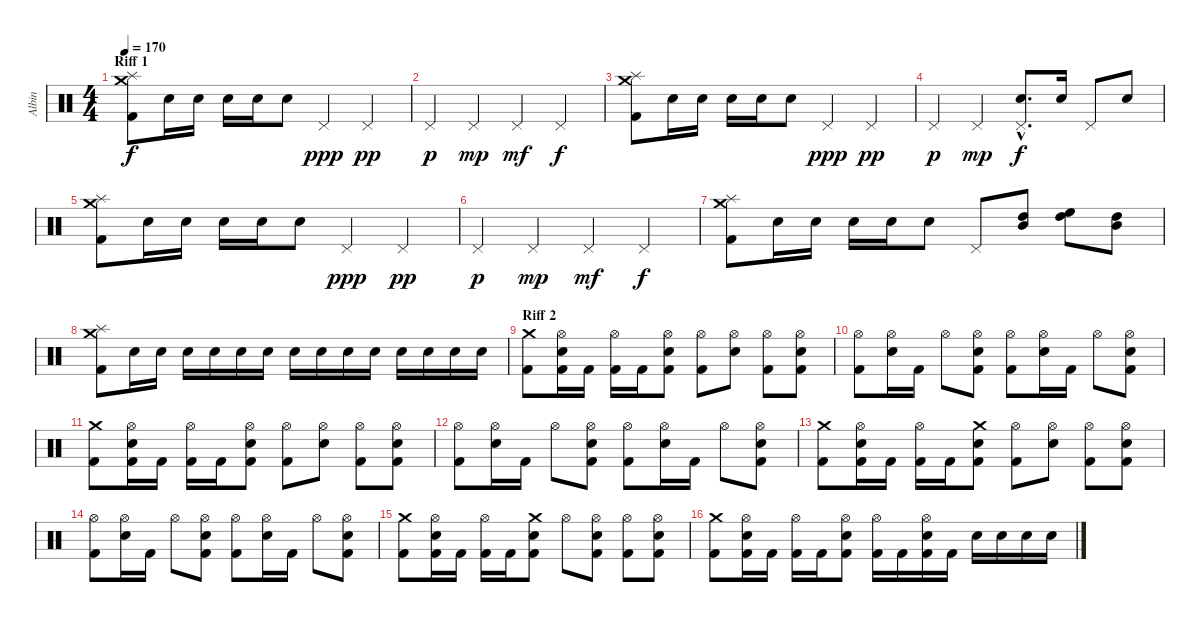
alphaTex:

\track ("Albin" "Albin") {instrument percussion}
\staff {score}
\articulation defaults
\ts (4 4)
\section ("" "Riff 1")
\tempo 170
\clef neutral
\ks c
("Crash medium (hit)" "Splash (hit)" "Kick (hit) 2").8{dy f} "Electric Snare (hit)".16 "Electric Snare (hit)".16 "Electric Snare (hit)".16 "Electric Snare (hit)".16 "Electric Snare (hit)".8 "Pedal Hi-Hat (hit)".4{dy ppp} "Pedal Hi-Hat (hit)".4{dy pp} |
"Pedal Hi-Hat (hit)".4{dy p} "Pedal Hi-Hat (hit)".4{dy mp} "Pedal Hi-Hat (hit)".4{dy mf} "Pedal Hi-Hat (hit)".4{dy f} |
("Crash medium (hit)" "Splash (hit)" "Kick (hit) 2").8 "Electric Snare (hit)".16 "Electric Snare (hit)".16 "Electric Snare (hit)".16 "Electric Snare (hit)".16 "Electric Snare (hit)".8 "Pedal Hi-Hat (hit)".4{dy ppp} "Pedal Hi-Hat (hit)".4{dy pp} |
"Pedal Hi-Hat (hit)".4{dy p} "Pedal Hi-Hat (hit)".4{dy mp} ("Pedal Hi-Hat (hit)"{hac} "Electric Snare (hit)"{hac}).8{d dy f} "Electric Snare (hit)".16 "Pedal Hi-Hat (hit)".8 "Electric Snare (hit)".8 |
("Crash medium (hit)" "Splash (hit)" "Kick (hit) 2").8 "Electric Snare (hit)".16 "Electric Snare (hit)".16 "Electric Snare (hit)".16 "Electric Snare (hit)".16 "Electric Snare (hit)".8 "Pedal Hi-Hat (hit)".4{dy ppp} "Pedal Hi-Hat (hit)".4{dy pp} |
"Pedal Hi-Hat (hit)".4{dy p} "Pedal Hi-Hat (hit)".4{dy mp} "Pedal Hi-Hat (hit)".4{dy mf} "Pedal Hi-Hat (hit)".4{dy f} |
("Crash medium (hit)" "Splash (hit)" "Kick (hit) 2").8 "Electric Snare (hit)".16 "Electric Snare (hit)".16 "Electric Snare (hit)".16 "Electric Snare (hit)".16 "Electric Snare (hit)".8 "Pedal Hi-Hat (hit)".8 ("Mid Tom (hit)" "High Tom (hit)").8 ("High Floor Tom (hit)" "High Tom (hit)").8 ("Mid Tom (hit)" "High Tom (hit)").8 |
("Crash medium (hit)" "Splash (hit)" "Kick (hit) 2").8 "Electric Snare (hit)".16 "Electric Snare (hit)".16 "Electric Snare (hit)".16 "Electric Snare (hit)".16 "Electric Snare (hit)".16 "Electric Snare (hit)".16 "Electric Snare (hit)".16 "Electric Snare (hit)".16 "Electric Snare (hit)".16 "Electric Snare (hit)".16 "Electric Snare (hit)".16 "Electric Snare (hit)".16 "Electric Snare (hit)".16 "Electric Snare (hit)".16 |
\section ("" "Riff 2")
("Crash medium (hit)" "Kick (hit) 2").8 ("Hi-Hat (open)" "Electric Snare (hit)" "Kick (hit) 2").16 "Kick (hit) 2".16 ("Hi-Hat (open)" "Kick (hit) 2").16 "Kick (hit) 2".16 ("Hi-Hat (open)" "Electric Snare (hit)" "Kick (hit) 2").8 ("Hi-Hat (open)" "Kick (hit) 2").8 ("Hi-Hat (open)" "Electric Snare (hit)").8 ("Hi-Hat (open)" "Kick (hit) 2").8 ("Hi-Hat (open)" "Electric Snare (hit)" "Kick (hit) 2").8 |
("Hi-Hat (open)" "Kick (hit) 2").8 ("Hi-Hat (open)" "Electric Snare (hit)").16 "Kick (hit) 2".16 "Hi-Hat (open)".8 ("Hi-Hat (open)" "Electric Snare (hit)" "Kick (hit) 2").8 ("Hi-Hat (open)" "Kick (hit) 2").8 ("Hi-Hat (open)" "Electric Snare (hit)").16 "Kick (hit) 2".16 "Hi-Hat (open)".8 ("Hi-Hat (open)" "Electric Snare (hit)" "Kick (hit) 2").8 |
("Crash medium (hit)" "Kick (hit) 2").8 ("Hi-Hat (open)" "Electric Snare (hit)" "Kick (hit) 2").16 "Kick (hit) 2".16 ("Hi-Hat (open)" "Kick (hit) 2").16 "Kick (hit) 2".16 ("Hi-Hat (open)" "Electric Snare (hit)" "Kick (hit) 2").8 ("Hi-Hat (open)" "Kick (hit) 2").8 ("Hi-Hat (open)" "Electric Snare (hit)").8 ("Hi-Hat (open)" "Kick (hit) 2").8 ("Hi-Hat (open)" "Electric Snare (hit)" "Kick (hit) 2").8 |
("Hi-Hat (open)" "Kick (hit) 2").8 ("Hi-Hat (open)" "Electric Snare (hit)").16 "Kick (hit) 2".16 "Hi-Hat (open)".8 ("Hi-Hat (open)" "Electric Snare (hit)" "Kick (hit) 2").8 ("Hi-Hat (open)" "Kick (hit) 2").8 ("Hi-Hat (open)" "Electric Snare (hit)").16 "Kick (hit) 2".16 "Hi-Hat (open)".8 ("Hi-Hat (open)" "Electric Snare (hit)" "Kick (hit) 2").8 |
("Crash medium (hit)" "Kick (hit) 2").8 ("Hi-Hat (open)" "Electric Snare (hit)" "Kick (hit) 2").16 "Kick (hit) 2".16 ("Hi-Hat (open)" "Kick (hit) 2").16 "Kick (hit) 2".16 ("Crash medium (hit)" "Electric Snare (hit)" "Kick (hit) 2").8 ("Hi-Hat (open)" "Kick (hit) 2").8 ("Hi-Hat (open)" "Electric Snare (hit)").8 ("Hi-Hat (open)" "Kick (hit) 2").8 ("Hi-Hat (open)" "Electric Snare (hit)" "Kick (hit) 2").8 |
("Hi-Hat (open)" "Kick (hit) 2").8 ("Hi-Hat (open)" "Electric Snare (hit)").16 "Kick (hit) 2".16 "Hi-Hat (open)".8 ("Hi-Hat (open)" "Electric Snare (hit)" "Kick (hit) 2").8 ("Hi-Hat (open)" "Kick (hit) 2").8 ("Hi-Hat (open)" "Electric Snare (hit)").16 "Kick (hit) 2".16 "Hi-Hat (open)".8 ("Hi-Hat (open)" "Electric Snare (hit)" "Kick (hit) 2").8 |
("Crash medium (hit)" "Kick (hit) 2").8 ("Hi-Hat (open)" "Electric Snare (hit)" "Kick (hit) 2").16 "Kick (hit) 2".16 ("Hi-Hat (open)" "Kick (hit) 2").16 "Kick (hit) 2".16 ("Crash medium (hit)" "Electric Snare (hit)" "Kick (hit) 2").8 "Hi-Hat (open)".8 ("Hi-Hat (open)" "Electric Snare (hit)" "Kick (hit) 2").8 ("Hi-Hat (open)" "Kick (hit) 2").8 ("Hi-Hat (open)" "Electric Snare (hit)" "Kick (hit) 2").8 |
("Crash medium (hit)" "Kick (hit) 2").8 ("Hi-Hat (open)" "Electric Snare (hit)" "Kick (hit) 2").16 "Kick (hit) 2".16 ("Hi-Hat (open)" "Kick (hit) 2").16 "Kick (hit) 2".16 ("Hi-Hat (open)" "Electric Snare (hit)" "Kick (hit) 2").8 ("Hi-Hat (open)" "Kick (hit) 2").16 "Kick (hit) 2".16 ("Hi-Hat (open)" "Electric Snare (hit)" "Kick (hit) 2").16 "Kick (hit) 2".16 "Electric Snare (hit)".16 "Electric Snare (hit)".16 "Electric Snare (hit)".16 "Electric Snare (hit)".16
